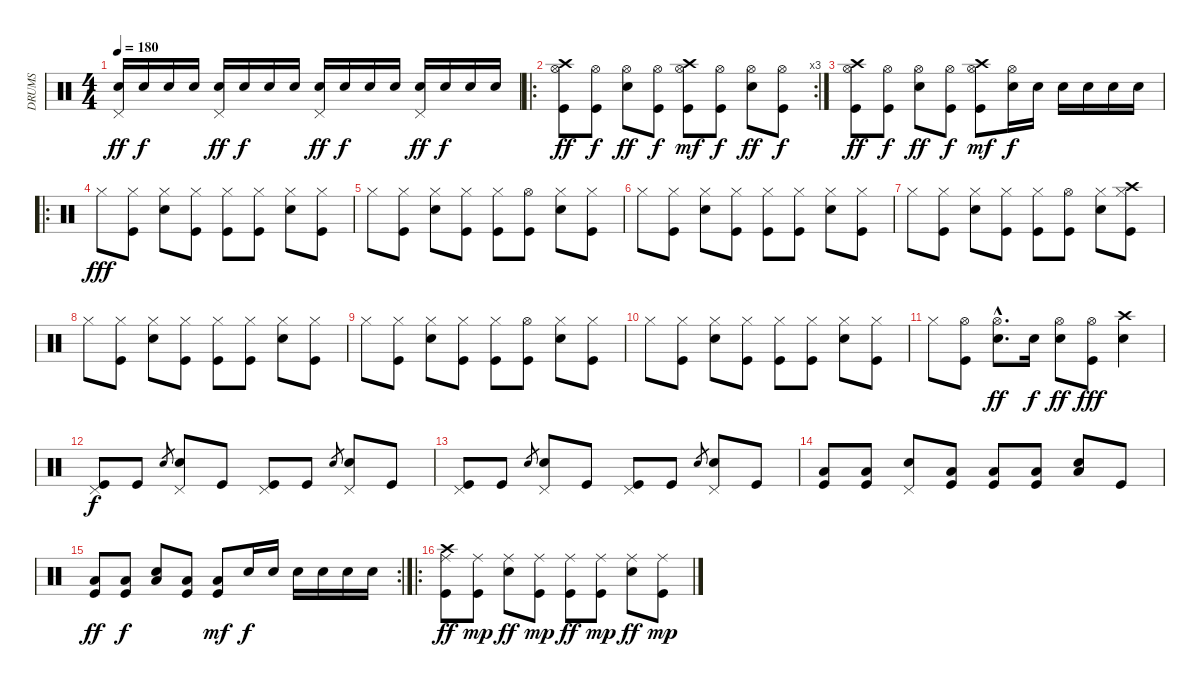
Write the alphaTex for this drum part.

\track ("DRUMS" "DRUMS") {instrument percussion}
\staff {score}
\articulation defaults
\ts (4 4)
\tempo 180
\clef neutral
\ks c
("Electric Snare (hit)" "Pedal Hi-Hat (hit)").16{dy ff} "Electric Snare (hit)".16{dy f} "Electric Snare (hit)".16 "Electric Snare (hit)".16 ("Electric Snare (hit)" "Pedal Hi-Hat (hit)").16{dy ff} "Electric Snare (hit)".16{dy f} "Electric Snare (hit)".16 "Electric Snare (hit)".16 ("Electric Snare (hit)" "Pedal Hi-Hat (hit)").16{dy ff} "Electric Snare (hit)".16{dy f} "Electric Snare (hit)".16 "Electric Snare (hit)".16 ("Electric Snare (hit)" "Pedal Hi-Hat (hit)").16{dy ff} "Electric Snare (hit)".16{dy f} "Electric Snare (hit)".16 "Electric Snare (hit)".16 |
\ro
\rc 3
("Crash high (hit)" "Hi-Hat (open)" "Kick (hit)").8{dy ff} ("Hi-Hat (open)" "Kick (hit)").8{dy f} ("Hi-Hat (open)" "Electric Snare (hit)").8{dy ff} ("Hi-Hat (open)" "Kick (hit)").8{dy f} ("Hi-Hat (open)" "Crash high (hit)" "Kick (hit)").8{dy mf} ("Hi-Hat (open)" "Kick (hit)").8{dy f} ("Hi-Hat (open)" "Electric Snare (hit)").8{dy ff} ("Hi-Hat (open)" "Kick (hit)").8{dy f} |
("Crash high (hit)" "Hi-Hat (open)" "Kick (hit)").8{dy ff} ("Hi-Hat (open)" "Kick (hit)").8{dy f} ("Hi-Hat (open)" "Electric Snare (hit)").8{dy ff} ("Hi-Hat (open)" "Kick (hit)").8{dy f} ("Hi-Hat (open)" "Crash high (hit)" "Kick (hit)").8{dy mf} ("Hi-Hat (open)" "Electric Snare (hit)").16{dy f} "Electric Snare (hit)".16 "Electric Snare (hit)".16 "Electric Snare (hit)".16 "Electric Snare (hit)".16 "Electric Snare (hit)".16 |
\ro "Hi-Hat (closed)".8{dy fff}
("Hi-Hat (closed)" "Kick (hit)").8 ("Hi-Hat (closed)" "Electric Snare (hit)").8 ("Hi-Hat (closed)" "Kick (hit)").8 ("Hi-Hat (closed)" "Kick (hit)").8 ("Hi-Hat (closed)" "Kick (hit)").8 ("Hi-Hat (closed)" "Electric Snare (hit)").8 ("Hi-Hat (closed)" "Kick (hit)").8 |
"Hi-Hat (closed)".8 ("Hi-Hat (closed)" "Kick (hit)").8 ("Hi-Hat (closed)" "Electric Snare (hit)").8 ("Hi-Hat (closed)" "Kick (hit)").8 ("Hi-Hat (closed)" "Kick (hit)").8 ("Hi-Hat (open)" "Kick (hit)").8 ("Hi-Hat (closed)" "Electric Snare (hit)").8 ("Hi-Hat (closed)" "Kick (hit)").8 |
"Hi-Hat (closed)".8 ("Hi-Hat (closed)" "Kick (hit)").8 ("Hi-Hat (closed)" "Electric Snare (hit)").8 ("Hi-Hat (closed)" "Kick (hit)").8 ("Hi-Hat (closed)" "Kick (hit)").8 ("Hi-Hat (closed)" "Kick (hit)").8 ("Hi-Hat (closed)" "Electric Snare (hit)").8 ("Hi-Hat (closed)" "Kick (hit)").8 |
"Hi-Hat (closed)".8 ("Hi-Hat (closed)" "Kick (hit)").8 ("Hi-Hat (closed)" "Electric Snare (hit)").8 ("Hi-Hat (closed)" "Kick (hit)").8 ("Hi-Hat (closed)" "Kick (hit)").8 ("Hi-Hat (open)" "Kick (hit)").8 ("Hi-Hat (closed)" "Electric Snare (hit)").8 ("Crash high (hit)" "Hi-Hat (closed)" "Kick (hit)").8 |
"Hi-Hat (closed)".8 ("Hi-Hat (closed)" "Kick (hit)").8 ("Hi-Hat (closed)" "Electric Snare (hit)").8 ("Hi-Hat (closed)" "Kick (hit)").8 ("Hi-Hat (closed)" "Kick (hit)").8 ("Hi-Hat (closed)" "Kick (hit)").8 ("Hi-Hat (closed)" "Electric Snare (hit)").8 ("Hi-Hat (closed)" "Kick (hit)").8 |
"Hi-Hat (closed)".8 ("Hi-Hat (closed)" "Kick (hit)").8 ("Hi-Hat (closed)" "Electric Snare (hit)").8 ("Hi-Hat (closed)" "Kick (hit)").8 ("Hi-Hat (closed)" "Kick (hit)").8 ("Hi-Hat (open)" "Kick (hit)").8 ("Hi-Hat (closed)" "Electric Snare (hit)").8 ("Hi-Hat (closed)" "Kick (hit)").8 |
"Hi-Hat (closed)".8 ("Hi-Hat (closed)" "Kick (hit)").8 ("Hi-Hat (closed)" "Electric Snare (hit)").8 ("Hi-Hat (closed)" "Kick (hit)").8 ("Hi-Hat (closed)" "Kick (hit)").8 ("Hi-Hat (closed)" "Kick (hit)").8 ("Hi-Hat (closed)" "Electric Snare (hit)").8 ("Hi-Hat (closed)" "Kick (hit)").8 |
"Hi-Hat (closed)".8 ("Hi-Hat (open)" "Kick (hit)").8 ("Hi-Hat (open)"{hac} "Electric Snare (hit)"{hac}).8{d dy ff} "Electric Snare (hit)".16{dy f} ("Hi-Hat (open)" "Electric Snare (hit)").8{dy ff} ("Hi-Hat (open)" "Kick (hit)").8{dy fff} ("Crash high (hit)" "Electric Snare (hit)").4 |
("Pedal Hi-Hat (hit)" "Kick (hit)").8{dy f} "Kick (hit)".8 "Electric Snare (hit)".8{gr} ("Pedal Hi-Hat (hit)" "Electric Snare (hit)").8 "Kick (hit)".8 ("Pedal Hi-Hat (hit)" "Kick (hit)").8 "Kick (hit)".8 "Electric Snare (hit)".8{gr} ("Pedal Hi-Hat (hit)" "Electric Snare (hit)").8 "Kick (hit)".8 |
("Pedal Hi-Hat (hit)" "Kick (hit)").8 "Kick (hit)".8 "Electric Snare (hit)".8{gr} ("Pedal Hi-Hat (hit)" "Electric Snare (hit)").8 "Kick (hit)".8 ("Pedal Hi-Hat (hit)" "Kick (hit)").8 "Kick (hit)".8 "Electric Snare (hit)".8{gr} ("Pedal Hi-Hat (hit)" "Electric Snare (hit)").8 "Kick (hit)".8 |
("Low Floor Tom (hit)" "Kick (hit)").8 ("Low Floor Tom (hit)" "Kick (hit)").8 ("Pedal Hi-Hat (hit)" "Electric Snare (hit)").8 ("Low Floor Tom (hit)" "Kick (hit)").8 ("Low Floor Tom (hit)" "Kick (hit)").8 ("Low Floor Tom (hit)" "Kick (hit)").8 ("Low Floor Tom (hit)" "Electric Snare (hit)").8 "Kick (hit)".8 |
\rc 2
("Low Floor Tom (hit)" "Kick (hit)").8{dy ff} ("Low Floor Tom (hit)" "Kick (hit)").8{dy f} ("Low Floor Tom (hit)" "Electric Snare (hit)").8 ("Low Floor Tom (hit)" "Kick (hit)").8 ("Low Floor Tom (hit)" "Kick (hit)").8{dy mf} "Electric Snare (hit)".16{dy f} "Electric Snare (hit)".16 "Electric Snare (hit)".16 "Electric Snare (hit)".16 "Electric Snare (hit)".16 "Electric Snare (hit)".16 |
\ro
("Crash high (hit)" "Ride (middle)" "Kick (hit)").8{dy ff} ("Ride (middle)" "Kick (hit)").8{dy mp} ("Ride (middle)" "Electric Snare (hit)").8{dy ff} ("Ride (middle)" "Kick (hit)").8{dy mp} ("Ride (middle)" "Kick (hit)").8{dy ff} ("Ride (middle)" "Kick (hit)").8{dy mp} ("Ride (middle)" "Electric Snare (hit)").8{dy ff} ("Ride (middle)" "Kick (hit)").8{dy mp}
